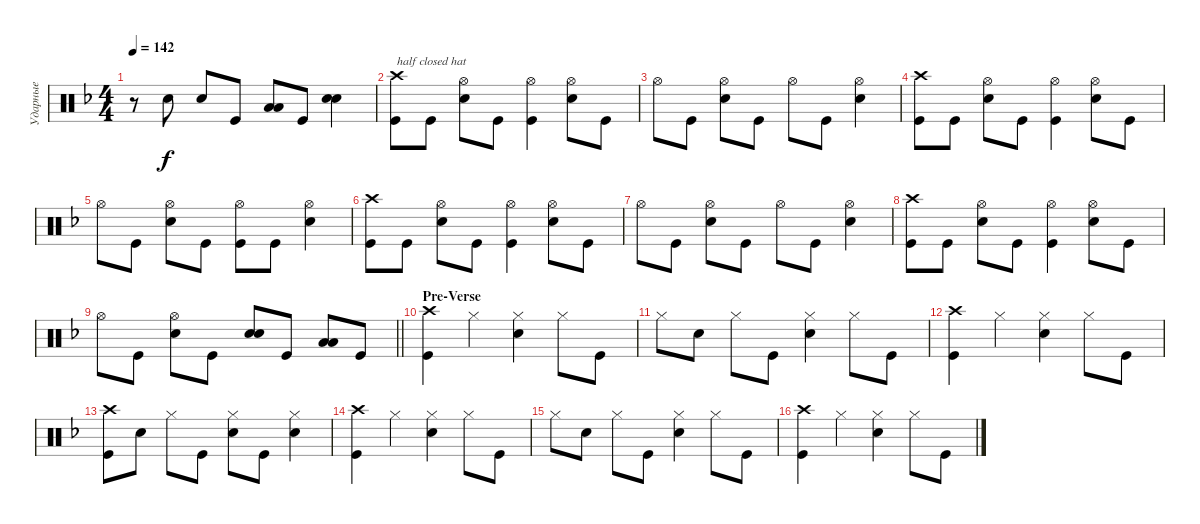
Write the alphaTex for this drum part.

\track ("Ударные" "Ударные") {instrument percussion}
\staff {score}
\articulation defaults
\ts (4 4)
\tempo 142
\clef neutral
\ks dminor
r.8{dy f} "Snare (hit) 2".8 "Snare (hit) 2".8 "Kick (hit)".8 ("Low Tom (hit)" "Low Tom (hit)").8{bd 240} "Kick (hit)".8 ("Snare (hit) 2" "Snare (hit) 2").4{bd 240} |
("Kick (hit)" "Crash high (hit)").8{txt "half closed hat"} "Kick (hit)".8 ("Snare (hit) 2" "Hi-Hat (open)").8 "Kick (hit)".8 ("Kick (hit)" "Hi-Hat (open)").4 ("Snare (hit) 2" "Hi-Hat (open)").8 "Kick (hit)".8 |
"Hi-Hat (open)".8 "Kick (hit)".8 ("Snare (hit) 2" "Hi-Hat (open)").8 "Kick (hit)".8 "Hi-Hat (open)".8 "Kick (hit)".8 ("Snare (hit) 2" "Hi-Hat (open)").4 |
("Kick (hit)" "Crash high (hit)").8 "Kick (hit)".8 ("Snare (hit) 2" "Hi-Hat (open)").8 "Kick (hit)".8 ("Kick (hit)" "Hi-Hat (open)").4 ("Snare (hit) 2" "Hi-Hat (open)").8 "Kick (hit)".8 |
"Hi-Hat (open)".8 "Kick (hit)".8 ("Snare (hit) 2" "Hi-Hat (open)").8 "Kick (hit)".8 ("Hi-Hat (open)" "Kick (hit)").8 "Kick (hit)".8 ("Snare (hit) 2" "Hi-Hat (open)").4 |
("Kick (hit)" "Crash high (hit)").8 "Kick (hit)".8 ("Snare (hit) 2" "Hi-Hat (open)").8 "Kick (hit)".8 ("Kick (hit)" "Hi-Hat (open)").4 ("Snare (hit) 2" "Hi-Hat (open)").8 "Kick (hit)".8 |
"Hi-Hat (open)".8 "Kick (hit)".8 ("Snare (hit) 2" "Hi-Hat (open)").8 "Kick (hit)".8 "Hi-Hat (open)".8 "Kick (hit)".8 ("Snare (hit) 2" "Hi-Hat (open)").4 |
("Kick (hit)" "Crash high (hit)").8 "Kick (hit)".8 ("Snare (hit) 2" "Hi-Hat (open)").8 "Kick (hit)".8 ("Kick (hit)" "Hi-Hat (open)").4 ("Snare (hit) 2" "Hi-Hat (open)").8 "Kick (hit)".8 |
\barLineRight lightlight "Hi-Hat (open)".8 "Kick (hit)".8
("Snare (hit) 2" "Hi-Hat (open)").8 "Kick (hit)".8 ("Snare (hit) 2" "Snare (hit) 2").8{bd 240} "Kick (hit)".8 ("Low Tom (hit)" "Low Tom (hit)").8{bd 240} "Kick (hit)".8 |
\section ("" "Pre-Verse")
("Kick (hit)" "Crash high (hit)").4 "Hi-Hat (closed)".4 ("Hi-Hat (closed)" "Snare (hit) 2").4 "Hi-Hat (closed)".8 "Kick (hit)".8 |
"Hi-Hat (closed)".8 "Snare (hit) 2".8 "Hi-Hat (closed)".8 "Kick (hit)".8 ("Snare (hit) 2" "Hi-Hat (closed)").4 "Hi-Hat (closed)".8 "Kick (hit)".8 |
("Kick (hit)" "Crash high (hit)").4 "Hi-Hat (closed)".4 ("Hi-Hat (closed)" "Snare (hit) 2").4 "Hi-Hat (closed)".8 "Kick (hit)".8 |
("Kick (hit)" "Crash high (hit)").8 "Snare (hit) 2".8 "Hi-Hat (closed)".8 "Kick (hit)".8 ("Snare (hit) 2" "Hi-Hat (closed)").8 "Kick (hit)".8 ("Snare (hit) 2" "Hi-Hat (closed)").4 |
("Kick (hit)" "Crash high (hit)").4 "Hi-Hat (closed)".4 ("Hi-Hat (closed)" "Snare (hit) 2").4 "Hi-Hat (closed)".8 "Kick (hit)".8 |
"Hi-Hat (closed)".8 "Snare (hit) 2".8 "Hi-Hat (closed)".8 "Kick (hit)".8 ("Snare (hit) 2" "Hi-Hat (closed)").4 "Hi-Hat (closed)".8 "Kick (hit)".8 |
("Kick (hit)" "Crash high (hit)").4 "Hi-Hat (closed)".4 ("Hi-Hat (closed)" "Snare (hit) 2").4 "Hi-Hat (closed)".8 "Kick (hit)".8
